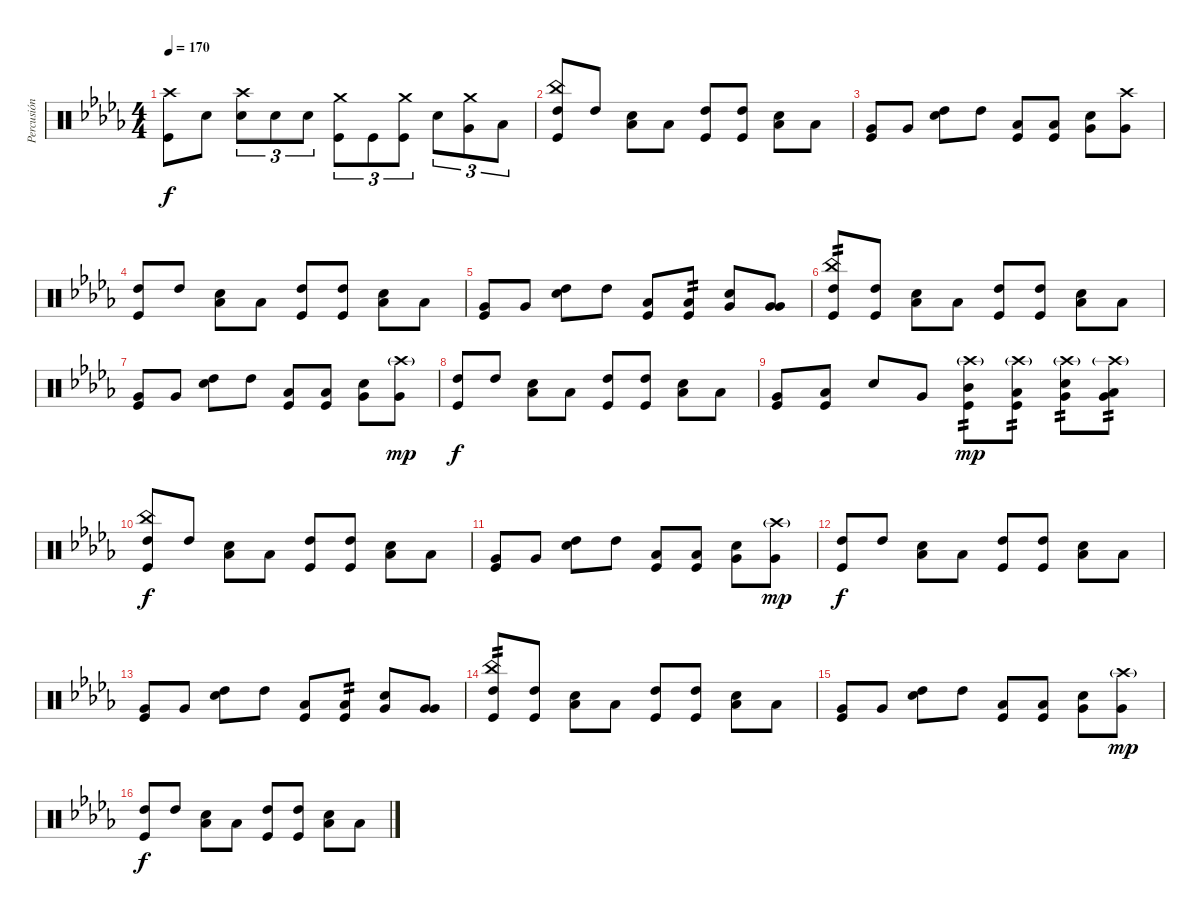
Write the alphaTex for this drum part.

\track ("Percusión" "Percusión") {instrument percussion}
\staff {score}
\articulation defaults
\ts (4 4)
\tempo 170
\clef neutral
\ks db
("Crash high (hit)" "Kick (hit)").8{dy f} "Electric Snare (hit)".8 ("Crash high (hit)" "Electric Snare (hit)").8{tu (3 2)} "Electric Snare (hit)".8{tu (3 2)} "Electric Snare (hit)".8{tu (3 2)} ("Crash medium (hit)" "Kick (hit)").8{tu (3 2)} "Kick (hit)".8{tu (3 2)} ("Crash medium (hit)" "Kick (hit)").8{tu (3 2)} "Electric Snare (hit)".8{tu (3 2)} ("Crash medium (hit)" "Very Low Tom (hit)").8{tu (3 2)} "Low Floor Tom (hit)".8{tu (3 2)} |
("China (hit)" "High Tom (hit)" "Kick (hit)").8 "High Tom (hit)".8 ("Low Tom (hit)" "Electric Snare (hit)").8 "Low Tom (hit)".8 ("High Tom (hit)" "Kick (hit)").8 ("High Tom (hit)" "Kick (hit)").8 ("Low Tom (hit)" "Electric Snare (hit)").8 "Low Tom (hit)".8 |
("Very Low Tom (hit)" "Kick (hit)").8 "Very Low Tom (hit)".8 ("High Tom (hit)" "Electric Snare (hit)").8 "High Tom (hit)".8 ("Low Floor Tom (hit)" "Kick (hit)").8 ("Low Floor Tom (hit)" "Kick (hit)").8 ("Very Low Tom (hit)" "Electric Snare (hit)").8 ("Crash high (hit)" "Very Low Tom (hit)").8 |
("High Tom (hit)" "Kick (hit)").8 "High Tom (hit)".8 ("Low Tom (hit)" "Electric Snare (hit)").8 "Low Tom (hit)".8 ("High Tom (hit)" "Kick (hit)").8 ("High Tom (hit)" "Kick (hit)").8 ("Low Tom (hit)" "Electric Snare (hit)").8 "Low Tom (hit)".8 |
("Very Low Tom (hit)" "Kick (hit)").8 "Very Low Tom (hit)".8 ("High Tom (hit)" "Electric Snare (hit)").8 "High Tom (hit)".8 ("Low Floor Tom (hit)" "Kick (hit)").8 ("Low Floor Tom (hit)" "Kick (hit)").8{tp 2} ("Very Low Tom (hit)" "Electric Snare (hit)").8 ("Very Low Tom (hit)" "Very Low Tom (hit)").8 |
("China (hit)" "High Tom (hit)" "Kick (hit)").8{tp 2} ("High Tom (hit)" "Kick (hit)").8 ("Low Tom (hit)" "Electric Snare (hit)").8 "Low Tom (hit)".8 ("High Tom (hit)" "Kick (hit)").8 ("High Tom (hit)" "Kick (hit)").8 ("Low Tom (hit)" "Electric Snare (hit)").8 "Low Tom (hit)".8 |
("Very Low Tom (hit)" "Kick (hit)").8 "Very Low Tom (hit)".8 ("High Tom (hit)" "Electric Snare (hit)").8 "High Tom (hit)".8 ("Low Floor Tom (hit)" "Kick (hit)").8 ("Low Floor Tom (hit)" "Kick (hit)").8 ("Very Low Tom (hit)" "Electric Snare (hit)").8 ("Crash high (hit)"{g} "Very Low Tom (hit)").8{dy mp} |
("High Tom (hit)" "Kick (hit)").8{dy f} "High Tom (hit)".8 ("Low Tom (hit)" "Electric Snare (hit)").8 "Low Tom (hit)".8 ("High Tom (hit)" "Kick (hit)").8 ("High Tom (hit)" "Kick (hit)").8 ("Low Tom (hit)" "Electric Snare (hit)").8 "Low Tom (hit)".8 |
("Very Low Tom (hit)" "Kick (hit)").8 ("Low Floor Tom (hit)" "Kick (hit)").8 "Electric Snare (hit)".8 "Very Low Tom (hit)".8 ("Crash high (hit)"{g} "Mid Tom (hit)" "Kick (hit)").8{tp 2 dy mp} ("Crash high (hit)"{g} "Low Tom (hit)" "Kick (hit)").8{tp 2} ("Crash high (hit)"{g} "Very Low Tom (hit)" "Electric Snare (hit)").8{tp 2} ("Crash high (hit)"{g} "Low Floor Tom (hit)" "Very Low Tom (hit)").8{tp 2} |
("China (hit)" "High Tom (hit)" "Kick (hit)").8{dy f} "High Tom (hit)".8 ("Low Tom (hit)" "Electric Snare (hit)").8 "Low Tom (hit)".8 ("High Tom (hit)" "Kick (hit)").8 ("High Tom (hit)" "Kick (hit)").8 ("Low Tom (hit)" "Electric Snare (hit)").8 "Low Tom (hit)".8 |
("Very Low Tom (hit)" "Kick (hit)").8 "Very Low Tom (hit)".8 ("High Tom (hit)" "Electric Snare (hit)").8 "High Tom (hit)".8 ("Low Floor Tom (hit)" "Kick (hit)").8 ("Low Floor Tom (hit)" "Kick (hit)").8 ("Very Low Tom (hit)" "Electric Snare (hit)").8 ("Crash high (hit)"{g} "Very Low Tom (hit)").8{dy mp} |
("High Tom (hit)" "Kick (hit)").8{dy f} "High Tom (hit)".8 ("Low Tom (hit)" "Electric Snare (hit)").8 "Low Tom (hit)".8 ("High Tom (hit)" "Kick (hit)").8 ("High Tom (hit)" "Kick (hit)").8 ("Low Tom (hit)" "Electric Snare (hit)").8 "Low Tom (hit)".8 |
("Very Low Tom (hit)" "Kick (hit)").8 "Very Low Tom (hit)".8 ("High Tom (hit)" "Electric Snare (hit)").8 "High Tom (hit)".8 ("Low Floor Tom (hit)" "Kick (hit)").8 ("Low Floor Tom (hit)" "Kick (hit)").8{tp 2} ("Very Low Tom (hit)" "Electric Snare (hit)").8 ("Very Low Tom (hit)" "Very Low Tom (hit)").8 |
("China (hit)" "High Tom (hit)" "Kick (hit)").8{tp 2} ("High Tom (hit)" "Kick (hit)").8 ("Low Tom (hit)" "Electric Snare (hit)").8 "Low Tom (hit)".8 ("High Tom (hit)" "Kick (hit)").8 ("High Tom (hit)" "Kick (hit)").8 ("Low Tom (hit)" "Electric Snare (hit)").8 "Low Tom (hit)".8 |
("Very Low Tom (hit)" "Kick (hit)").8 "Very Low Tom (hit)".8 ("High Tom (hit)" "Electric Snare (hit)").8 "High Tom (hit)".8 ("Low Floor Tom (hit)" "Kick (hit)").8 ("Low Floor Tom (hit)" "Kick (hit)").8 ("Very Low Tom (hit)" "Electric Snare (hit)").8 ("Crash high (hit)"{g} "Very Low Tom (hit)").8{dy mp} |
("High Tom (hit)" "Kick (hit)").8{dy f} "High Tom (hit)".8 ("Low Tom (hit)" "Electric Snare (hit)").8 "Low Tom (hit)".8 ("High Tom (hit)" "Kick (hit)").8 ("High Tom (hit)" "Kick (hit)").8 ("Low Tom (hit)" "Electric Snare (hit)").8 "Low Tom (hit)".8
